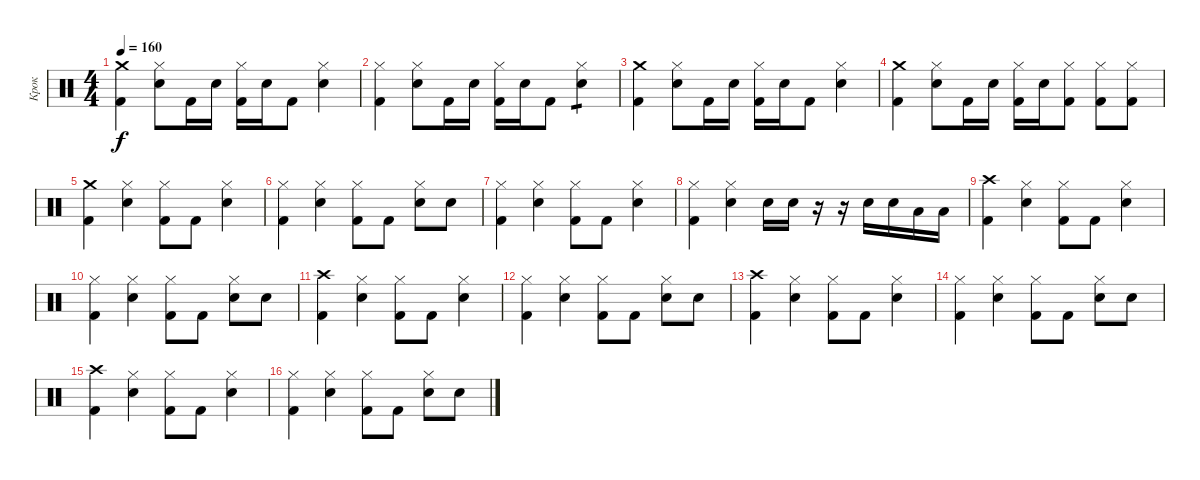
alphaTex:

\track ("Крок" "Крок") {instrument percussion}
\staff {score}
\articulation defaults
\ts (4 4)
\tempo 160
\clef neutral
\ks c
("Crash medium (hit)" "Kick (hit) 2").4{dy f} ("Hi-Hat (closed)" "Electric Snare (hit)").8 "Kick (hit) 2".16 "Electric Snare (hit)".16 ("Hi-Hat (closed)" "Kick (hit) 2").16 "Electric Snare (hit)".16 "Kick (hit) 2".8 ("Hi-Hat (closed)" "Electric Snare (hit)").4 |
("Hi-Hat (closed)" "Kick (hit) 2").4 ("Hi-Hat (closed)" "Electric Snare (hit)").8 "Kick (hit) 2".16 "Electric Snare (hit)".16 ("Hi-Hat (closed)" "Kick (hit) 2").16 "Electric Snare (hit)".16 "Kick (hit) 2".8 ("Hi-Hat (closed)" "Electric Snare (hit)").4{tp 1} |
("Crash medium (hit)" "Kick (hit) 2").4 ("Hi-Hat (closed)" "Electric Snare (hit)").8 "Kick (hit) 2".16 "Electric Snare (hit)".16 ("Hi-Hat (closed)" "Kick (hit) 2").16 "Electric Snare (hit)".16 "Kick (hit) 2".8 ("Hi-Hat (closed)" "Electric Snare (hit)").4 |
("Crash medium (hit)" "Kick (hit) 2").4 ("Hi-Hat (closed)" "Electric Snare (hit)").8 "Kick (hit) 2".16 "Electric Snare (hit)".16 ("Hi-Hat (closed)" "Kick (hit) 2").16 "Electric Snare (hit)".16 ("Kick (hit) 2" "Hi-Hat (closed)").8 ("Kick (hit) 2" "Hi-Hat (closed)").8 ("Kick (hit) 2" "Hi-Hat (closed)").8 |
("Kick (hit) 2" "Crash medium (hit)").4 ("Hi-Hat (closed)" "Electric Snare (hit)").4 ("Hi-Hat (closed)" "Kick (hit) 2").8 "Kick (hit) 2".8 ("Hi-Hat (closed)" "Electric Snare (hit)").4 |
("Hi-Hat (closed)" "Kick (hit) 2").4 ("Hi-Hat (closed)" "Electric Snare (hit)").4 ("Hi-Hat (closed)" "Kick (hit) 2").8 "Kick (hit) 2".8 ("Hi-Hat (closed)" "Electric Snare (hit)").8 "Electric Snare (hit)".8 |
("Hi-Hat (closed)" "Kick (hit) 2").4 ("Hi-Hat (closed)" "Electric Snare (hit)").4 ("Hi-Hat (closed)" "Kick (hit) 2").8 "Kick (hit) 2".8 ("Hi-Hat (closed)" "Electric Snare (hit)").4 |
("Hi-Hat (closed)" "Kick (hit) 2").4 ("Hi-Hat (closed)" "Electric Snare (hit)").4 "Electric Snare (hit)".16 "Electric Snare (hit)".16 r.16 r.16 "Electric Snare (hit)".16 "Electric Snare (hit)".16 "Low Tom (hit)".16 "Low Tom (hit)".16 |
("Crash high (hit)" "Kick (hit) 2").4 ("Hi-Hat (closed)" "Electric Snare (hit)").4 ("Hi-Hat (closed)" "Kick (hit) 2").8 "Kick (hit) 2".8 ("Hi-Hat (closed)" "Electric Snare (hit)").4 |
("Hi-Hat (closed)" "Kick (hit) 2").4 ("Hi-Hat (closed)" "Electric Snare (hit)").4 ("Hi-Hat (closed)" "Kick (hit) 2").8 "Kick (hit) 2".8 ("Hi-Hat (closed)" "Electric Snare (hit)").8 "Electric Snare (hit)".8 |
("Crash high (hit)" "Kick (hit) 2").4 ("Hi-Hat (closed)" "Electric Snare (hit)").4 ("Hi-Hat (closed)" "Kick (hit) 2").8 "Kick (hit) 2".8 ("Hi-Hat (closed)" "Electric Snare (hit)").4 |
("Hi-Hat (closed)" "Kick (hit) 2").4 ("Hi-Hat (closed)" "Electric Snare (hit)").4 ("Hi-Hat (closed)" "Kick (hit) 2").8 "Kick (hit) 2".8 ("Hi-Hat (closed)" "Electric Snare (hit)").8 "Electric Snare (hit)".8 |
("Crash high (hit)" "Kick (hit) 2").4 ("Hi-Hat (closed)" "Electric Snare (hit)").4 ("Hi-Hat (closed)" "Kick (hit) 2").8 "Kick (hit) 2".8 ("Hi-Hat (closed)" "Electric Snare (hit)").4 |
("Hi-Hat (closed)" "Kick (hit) 2").4 ("Hi-Hat (closed)" "Electric Snare (hit)").4 ("Hi-Hat (closed)" "Kick (hit) 2").8 "Kick (hit) 2".8 ("Hi-Hat (closed)" "Electric Snare (hit)").8 "Electric Snare (hit)".8 |
("Crash high (hit)" "Kick (hit) 2").4 ("Hi-Hat (closed)" "Electric Snare (hit)").4 ("Hi-Hat (closed)" "Kick (hit) 2").8 "Kick (hit) 2".8 ("Hi-Hat (closed)" "Electric Snare (hit)").4 |
("Hi-Hat (closed)" "Kick (hit) 2").4 ("Hi-Hat (closed)" "Electric Snare (hit)").4 ("Hi-Hat (closed)" "Kick (hit) 2").8 "Kick (hit) 2".8 ("Hi-Hat (closed)" "Electric Snare (hit)").8 "Electric Snare (hit)".8
